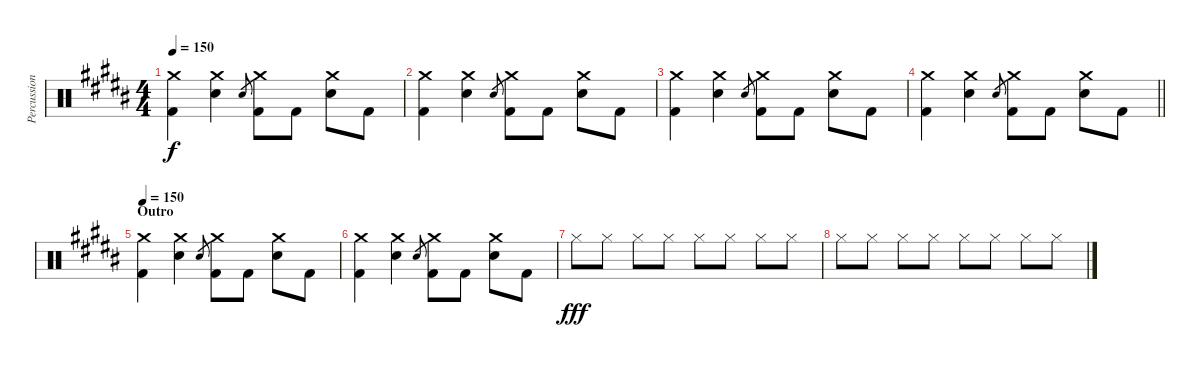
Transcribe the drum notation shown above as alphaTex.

\track ("Percussion" "Percussion") {instrument percussion}
\staff {score}
\articulation defaults
\ts (4 4)
\tempo 150
\clef neutral
\ks b
("Crash medium (hit)" "Kick (hit) 2").4{dy f} ("Crash medium (hit)" "Electric Snare (hit)").4 "Electric Snare (hit)".8{gr} ("Crash medium (hit)" "Kick (hit) 2").8 "Kick (hit) 2".8 ("Crash medium (hit)" "Electric Snare (hit)").8 "Kick (hit) 2".8 |
("Crash medium (hit)" "Kick (hit) 2").4 ("Crash medium (hit)" "Electric Snare (hit)").4 "Electric Snare (hit)".8{gr} ("Crash medium (hit)" "Kick (hit) 2").8 "Kick (hit) 2".8 ("Crash medium (hit)" "Electric Snare (hit)").8 "Kick (hit) 2".8 |
("Crash medium (hit)" "Kick (hit) 2").4 ("Crash medium (hit)" "Electric Snare (hit)").4 "Electric Snare (hit)".8{gr} ("Crash medium (hit)" "Kick (hit) 2").8 "Kick (hit) 2".8 ("Crash medium (hit)" "Electric Snare (hit)").8 "Kick (hit) 2".8 |
\barLineRight lightlight
("Crash medium (hit)" "Kick (hit) 2").4 ("Crash medium (hit)" "Electric Snare (hit)").4 "Electric Snare (hit)".8{gr} ("Crash medium (hit)" "Kick (hit) 2").8 "Kick (hit) 2".8 ("Crash medium (hit)" "Electric Snare (hit)").8 "Kick (hit) 2".8 |
\section ("" "Outro")
\tempo 150
("Crash medium (hit)" "Kick (hit) 2").4 ("Crash medium (hit)" "Electric Snare (hit)").4 "Electric Snare (hit)".8{gr} ("Crash medium (hit)" "Kick (hit) 2").8 "Kick (hit) 2".8 ("Crash medium (hit)" "Electric Snare (hit)").8 "Kick (hit) 2".8 |
("Crash medium (hit)" "Kick (hit) 2").4 ("Crash medium (hit)" "Electric Snare (hit)").4 "Electric Snare (hit)".8{gr} ("Crash medium (hit)" "Kick (hit) 2").8 "Kick (hit) 2".8 ("Crash medium (hit)" "Electric Snare (hit)").8 "Kick (hit) 2".8 |
"Hi-Hat (closed)".8{dy fff} "Hi-Hat (closed)".8 "Hi-Hat (closed)".8 "Hi-Hat (closed)".8 "Hi-Hat (closed)".8 "Hi-Hat (closed)".8 "Hi-Hat (closed)".8 "Hi-Hat (closed)".8 |
"Hi-Hat (closed)".8 "Hi-Hat (closed)".8 "Hi-Hat (closed)".8 "Hi-Hat (closed)".8 "Hi-Hat (closed)".8 "Hi-Hat (closed)".8 "Hi-Hat (closed)".8 "Hi-Hat (closed)".8
